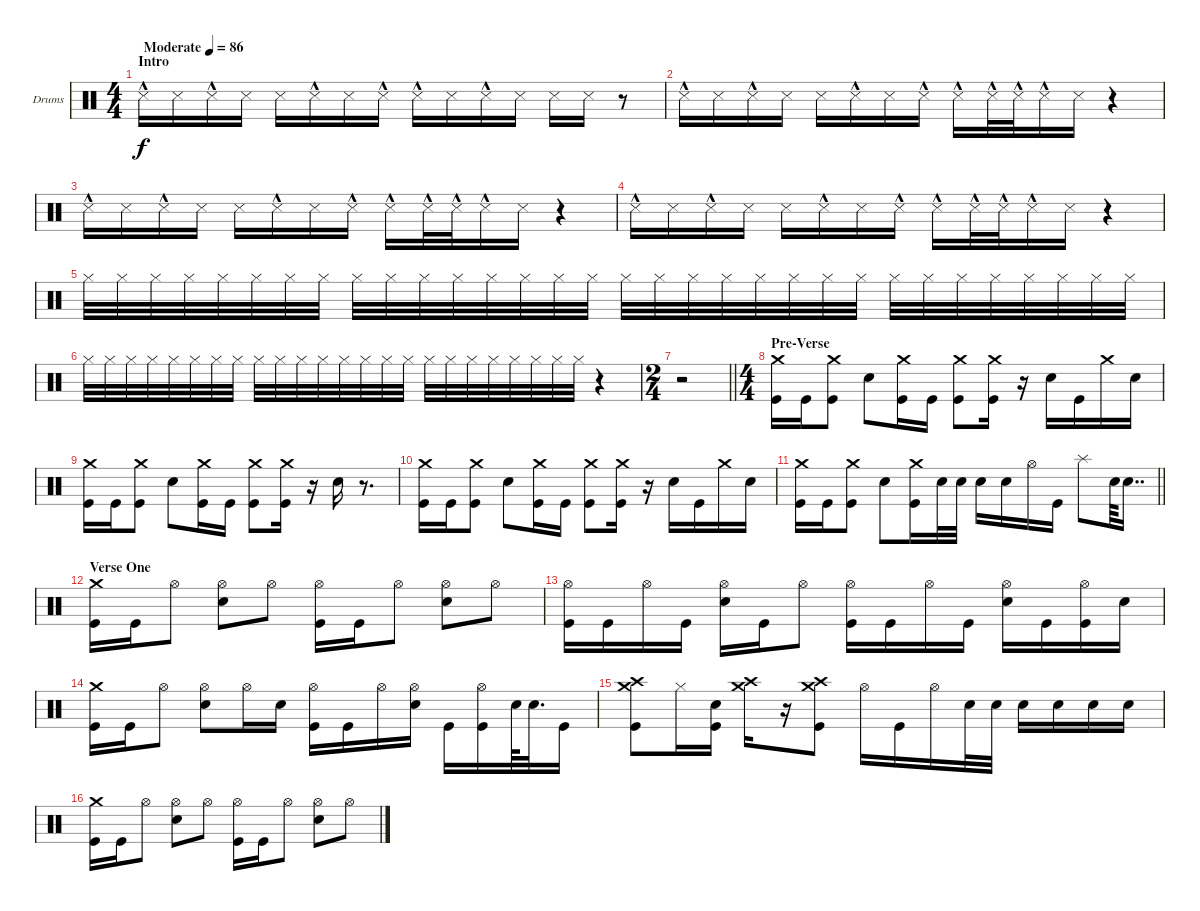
\bracketExtendMode groupsimilarinstruments
\firstSystemTrackNameOrientation horizontal
\otherSystemsTrackNameOrientation horizontal
\track ("Drumkit" "Drums") {instrument percussion}
\staff {score}
\articulation defaults
\ts (4 4)
\beaming (8 2 2 2 2)
\section ("" "Intro")
\tempo (86 "Moderate")
\clef neutral
\ks c "Snare (side stick) 3"{hac}.16{dy f} "Snare (side stick) 3".16 "Snare (side stick) 3"{hac}.16 "Snare (side stick) 3".16 "Snare (side stick) 3".16 "Snare (side stick) 3"{hac}.16 "Snare (side stick) 3".16 "Snare (side stick) 3"{hac}.16 "Snare (side stick) 3"{hac}.16 "Snare (side stick) 3".16 "Snare (side stick) 3"{hac}.16 "Snare (side stick) 3".16 "Snare (side stick) 3".16 "Snare (side stick) 3".16
r.8 |
"Snare (side stick) 3"{hac}.16 "Snare (side stick) 3".16 "Snare (side stick) 3"{hac}.16 "Snare (side stick) 3".16 "Snare (side stick) 3".16 "Snare (side stick) 3"{hac}.16 "Snare (side stick) 3".16 "Snare (side stick) 3"{hac}.16 "Snare (side stick) 3"{hac}.16 "Snare (side stick) 3"{hac}.32 "Snare (side stick) 3"{hac}.32 "Snare (side stick) 3"{hac}.16 "Snare (side stick) 3".16 r.4 |
"Snare (side stick) 3"{hac}.16 "Snare (side stick) 3".16 "Snare (side stick) 3"{hac}.16 "Snare (side stick) 3".16 "Snare (side stick) 3".16 "Snare (side stick) 3"{hac}.16 "Snare (side stick) 3".16 "Snare (side stick) 3"{hac}.16 "Snare (side stick) 3"{hac}.16 "Snare (side stick) 3"{hac}.32 "Snare (side stick) 3"{hac}.32 "Snare (side stick) 3"{hac}.16 "Snare (side stick) 3".16 r.4 |
"Snare (side stick) 3"{hac}.16 "Snare (side stick) 3".16 "Snare (side stick) 3"{hac}.16 "Snare (side stick) 3".16 "Snare (side stick) 3".16 "Snare (side stick) 3"{hac}.16 "Snare (side stick) 3".16 "Snare (side stick) 3"{hac}.16 "Snare (side stick) 3"{hac}.16 "Snare (side stick) 3"{hac}.32 "Snare (side stick) 3"{hac}.32 "Snare (side stick) 3"{hac}.16 "Snare (side stick) 3".16 r.4 |
"Hi-Hat (closed)".32 "Hi-Hat (closed)".32 "Hi-Hat (closed)".32 "Hi-Hat (closed)".32 "Hi-Hat (closed)".32 "Hi-Hat (closed)".32 "Hi-Hat (closed)".32 "Hi-Hat (closed)".32 "Hi-Hat (closed)".32 "Hi-Hat (closed)".32 "Hi-Hat (closed)".32 "Hi-Hat (closed)".32 "Hi-Hat (closed)".32 "Hi-Hat (closed)".32 "Hi-Hat (closed)".32 "Hi-Hat (closed)".32 "Hi-Hat (closed)".32 "Hi-Hat (closed)".32 "Hi-Hat (closed)".32 "Hi-Hat (closed)".32 "Hi-Hat (closed)".32 "Hi-Hat (closed)".32 "Hi-Hat (closed)".32 "Hi-Hat (closed)".32 "Hi-Hat (closed)".32 "Hi-Hat (closed)".32 "Hi-Hat (closed)".32 "Hi-Hat (closed)".32 "Hi-Hat (closed)".32 "Hi-Hat (closed)".32 "Hi-Hat (closed)".32 "Hi-Hat (closed)".32 |
"Hi-Hat (closed)".32 "Hi-Hat (closed)".32 "Hi-Hat (closed)".32 "Hi-Hat (closed)".32 "Hi-Hat (closed)".32 "Hi-Hat (closed)".32 "Hi-Hat (closed)".32 "Hi-Hat (closed)".32 "Hi-Hat (closed)".32 "Hi-Hat (closed)".32 "Hi-Hat (closed)".32 "Hi-Hat (closed)".32 "Hi-Hat (closed)".32 "Hi-Hat (closed)".32 "Hi-Hat (closed)".32 "Hi-Hat (closed)".32 "Hi-Hat (closed)".32 "Hi-Hat (closed)".32 "Hi-Hat (closed)".32 "Hi-Hat (closed)".32 "Hi-Hat (closed)".32 "Hi-Hat (closed)".32 "Hi-Hat (closed)".32 "Hi-Hat (closed)".32 r.4 |
\ts (2 4)
\beaming (8 2 2)
\barLineRight lightlight
r.2 |
\ts (4 4)
\beaming (8 2 2 2 2)
\section ("" "Pre-Verse")
("Crash medium (hit)" "Kick (hit)").16 "Kick (hit)".16 ("Crash medium (hit)" "Kick (hit)").8 "Snare (hit) 2".8 ("Crash medium (hit)" "Kick (hit)").16 "Kick (hit)".16 ("Crash medium (hit)" "Kick (hit)").8 ("Crash medium (hit)" "Kick (hit)").16 r.16 "Snare (hit) 2".16 "Kick (hit)".16 "Crash medium (hit)".16 "Snare (hit) 2".16 |
("Crash medium (hit)" "Kick (hit)").16 "Kick (hit)".16 ("Crash medium (hit)" "Kick (hit)").8 "Snare (hit) 2".8 ("Crash medium (hit)" "Kick (hit)").16 "Kick (hit)".16 ("Crash medium (hit)" "Kick (hit)").8 ("Crash medium (hit)" "Kick (hit)").16 r.16 "Snare (hit) 2".16 r.8{d} |
("Crash medium (hit)" "Kick (hit)").16 "Kick (hit)".16 ("Crash medium (hit)" "Kick (hit)").8 "Snare (hit) 2".8 ("Crash medium (hit)" "Kick (hit)").16 "Kick (hit)".16 ("Crash medium (hit)" "Kick (hit)").8 ("Crash medium (hit)" "Kick (hit)").16 r.16 "Snare (hit) 2".16 "Kick (hit)".16 "Crash medium (hit)".16 "Snare (hit) 2".16 |
\barLineRight lightlight
("Crash medium (hit)" "Kick (hit)").16 "Kick (hit)".16 ("Crash medium (hit)" "Kick (hit)").8 "Snare (hit) 2".8 ("Crash medium (hit)" "Kick (hit)").16 "Snare (hit) 2".32 "Snare (hit) 2".32 "Snare (hit) 2".16 "Snare (hit) 2".16 "Hi-Hat (open)".16 "Kick (hit)".16 "Splash (hit)".8 "Snare (hit) 2".64 "Snare (hit) 2".16{dd} |
\section ("" "Verse One")
("Crash medium (hit)" "Kick (hit)").16 "Kick (hit)".16 "Hi-Hat (open)".8 ("Hi-Hat (open)" "Snare (hit) 2").8 "Hi-Hat (open)".8 ("Hi-Hat (open)" "Kick (hit)").16 "Kick (hit)".16 "Hi-Hat (open)".8 ("Hi-Hat (open)" "Snare (hit) 2").8 "Hi-Hat (open)".8 |
("Hi-Hat (open)" "Kick (hit)").16 "Kick (hit)".16 "Hi-Hat (open)".16 "Kick (hit)".16 ("Hi-Hat (open)" "Snare (hit) 2").16 "Kick (hit)".16 "Hi-Hat (open)".8 ("Hi-Hat (open)" "Kick (hit)").16 "Kick (hit)".16 "Hi-Hat (open)".16 "Kick (hit)".16 ("Hi-Hat (open)" "Snare (hit) 2").16 "Kick (hit)".16 ("Hi-Hat (open)" "Kick (hit)").16 "Snare (hit) 2".16 |
("Crash medium (hit)" "Kick (hit)").16 "Kick (hit)".16 "Hi-Hat (open)".8 ("Hi-Hat (open)" "Snare (hit) 2").8 "Hi-Hat (open)".16 "Snare (hit) 2".16 ("Hi-Hat (open)" "Kick (hit)").16 "Kick (hit)".16 "Hi-Hat (open)".16 ("Hi-Hat (open)" "Snare (hit) 2").16 "Kick (hit)".16 ("Hi-Hat (open)" "Kick (hit)").16 "Snare (hit) 2".64 "Snare (hit) 2".32{d} "Kick (hit)".16 |
("Crash medium (hit)" "Crash high (hit)" "Kick (hit)").8 "Hi-Hat (closed)".16 ("Snare (hit) 2" "Kick (hit)").16 ("Crash medium (hit)" "Crash high (hit)").16 r.16 ("Crash medium (hit)" "Crash high (hit)" "Kick (hit)").8 "Hi-Hat (open)".16 "Kick (hit)".16 "Hi-Hat (open)".16 "Snare (hit) 2".32 "Snare (hit) 2".32 "Snare (hit) 2".16 "Snare (hit) 2".16 "Snare (hit) 2".16 "Snare (hit) 2".16 |
("Crash medium (hit)" "Kick (hit)").16 "Kick (hit)".16 "Hi-Hat (open)".8 ("Hi-Hat (open)" "Snare (hit) 2").8 "Hi-Hat (open)".8 ("Hi-Hat (open)" "Kick (hit)").16 "Kick (hit)".16 "Hi-Hat (open)".8 ("Hi-Hat (open)" "Snare (hit) 2").8 "Hi-Hat (open)".8
